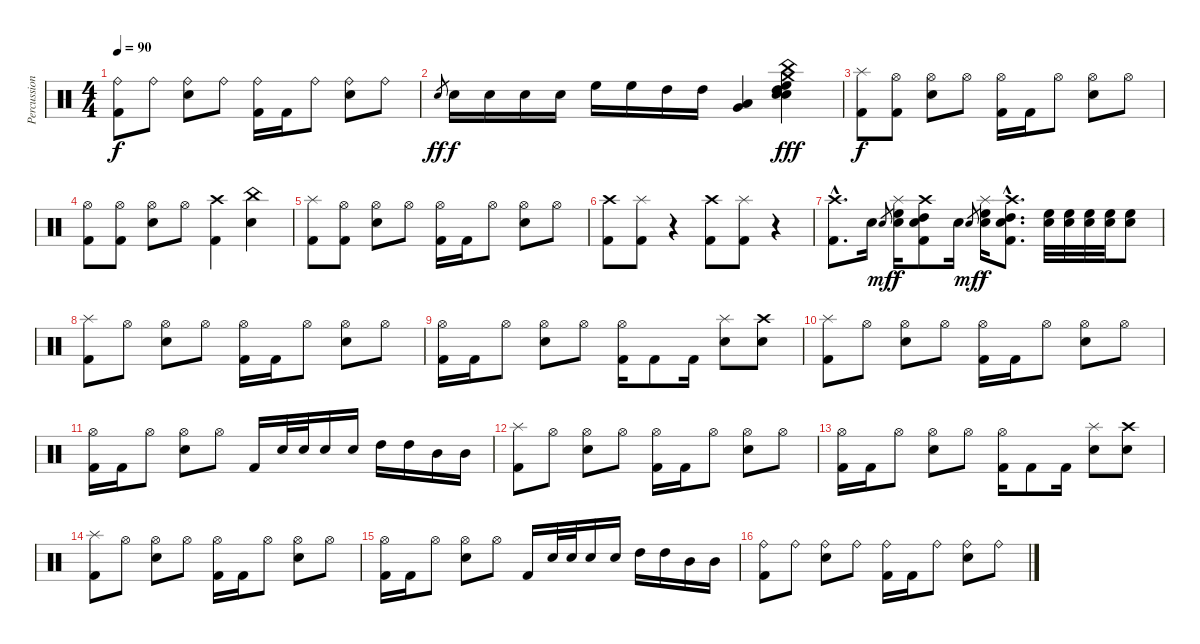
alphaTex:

\track ("Percussions" "Percussion") {instrument percussion}
\staff {score}
\articulation defaults
\ts (4 4)
\tempo 90
\clef neutral
\ks c
("Kick (hit) 2" "Ride (bell)").8{dy f} "Ride (bell)".8 ("Snare (hit) 2" "Ride (bell)").8 "Ride (bell)".8 ("Kick (hit) 2" "Ride (bell)").16 "Kick (hit) 2".16 "Ride (bell)".8 ("Snare (hit) 2" "Ride (bell)").8 "Ride (bell)".8 |
"Snare (hit) 2".8{gr dy ff} "Snare (hit) 2".16{dy f} "Snare (hit) 2".16 "Snare (hit) 2".16 "Snare (hit) 2".16 "High Floor Tom (hit)".16 "High Floor Tom (hit)".16 "High Tom (hit)".16 "High Tom (hit)".16 ("Very Low Tom (hit)" "Low Floor Tom (hit)").4 ("China (hit)" "High Tom (hit)" "High Floor Tom (hit)" "Snare (hit) 2" "Electric Snare (hit)" "Crash medium (hit)").4{dy fff} |
("Kick (hit) 2" "Splash (hit)").8{dy f} ("Kick (hit) 2" "Hi-Hat (open)").8 ("Snare (hit) 2" "Hi-Hat (open)").8 "Hi-Hat (open)".8 ("Kick (hit) 2" "Hi-Hat (open)").16 "Kick (hit) 2".16 "Hi-Hat (open)".8 ("Snare (hit) 2" "Hi-Hat (open)").8 "Hi-Hat (open)".8 |
("Kick (hit) 2" "Hi-Hat (open)").8 ("Kick (hit) 2" "Hi-Hat (open)").8 ("Snare (hit) 2" "Hi-Hat (open)").8 "Hi-Hat (open)".8 ("Kick (hit) 2" "Crash high (hit)").4 ("Snare (hit) 2" "China (hit)").4 |
("Kick (hit) 2" "Splash (hit)").8 ("Kick (hit) 2" "Hi-Hat (open)").8 ("Snare (hit) 2" "Hi-Hat (open)").8 "Hi-Hat (open)".8 ("Kick (hit) 2" "Hi-Hat (open)").16 "Kick (hit) 2".16 "Hi-Hat (open)".8 ("Snare (hit) 2" "Hi-Hat (open)").8 "Hi-Hat (open)".8 |
("Kick (hit) 2" "Crash high (hit)").8 ("Kick (hit) 2" "Splash (hit)").8 r.4 ("Kick (hit) 2" "Crash high (hit)").8 ("Kick (hit) 2" "Splash (hit)").8 r.4 |
("Kick (hit) 2"{hac} "Crash high (hit)"{hac}).8{d} "Snare (hit) 2".16 "Snare (hit) 2".8{gr dy mf} ("Snare (hit) 2" "High Floor Tom (hit)" "Splash (hit)").16{dy f} ("Kick (hit) 2" "Snare (hit) 2" "High Tom (hit)" "Crash high (hit)").8 "Snare (hit) 2".16 "Snare (hit) 2".8{gr dy mf} ("Snare (hit) 2" "High Floor Tom (hit)" "Splash (hit)").16{dy f} ("Kick (hit) 2"{hac} "Snare (hit) 2"{hac} "High Tom (hit)"{hac} "Crash high (hit)"{hac}).8{d} ("Snare (hit) 2" "High Floor Tom (hit)").32 ("Snare (hit) 2" "High Floor Tom (hit)").32 ("Snare (hit) 2" "High Floor Tom (hit)").32 ("Snare (hit) 2" "High Floor Tom (hit)").32 ("Snare (hit) 2" "High Floor Tom (hit)").8 |
("Kick (hit) 2" "Splash (hit)").8 "Hi-Hat (open)".8 ("Snare (hit) 2" "Hi-Hat (open)").8 "Hi-Hat (open)".8 ("Kick (hit) 2" "Hi-Hat (open)").16 "Kick (hit) 2".16 "Hi-Hat (open)".8 ("Snare (hit) 2" "Hi-Hat (open)").8 "Hi-Hat (open)".8 |
("Kick (hit) 2" "Hi-Hat (open)").16 "Kick (hit) 2".16 "Hi-Hat (open)".8 ("Snare (hit) 2" "Hi-Hat (open)").8 "Hi-Hat (open)".8 ("Kick (hit) 2" "Hi-Hat (open)").16 "Kick (hit) 2".8 "Kick (hit) 2".16 ("Snare (hit) 2" "Splash (hit)").8 ("Snare (hit) 2" "Crash high (hit)").8 |
("Kick (hit) 2" "Splash (hit)").8 "Hi-Hat (open)".8 ("Snare (hit) 2" "Hi-Hat (open)").8 "Hi-Hat (open)".8 ("Kick (hit) 2" "Hi-Hat (open)").16 "Kick (hit) 2".16 "Hi-Hat (open)".8 ("Snare (hit) 2" "Hi-Hat (open)").8 "Hi-Hat (open)".8 |
("Kick (hit) 2" "Hi-Hat (open)").16 "Kick (hit) 2".16 "Hi-Hat (open)".8 ("Snare (hit) 2" "Hi-Hat (open)").8 "Hi-Hat (open)".8 "Kick (hit) 2".16 "Snare (hit) 2".32 "Snare (hit) 2".32 "Snare (hit) 2".16 "Snare (hit) 2".16 "High Tom (hit)".16 "High Tom (hit)".16 "Mid Tom (hit)".16 "Mid Tom (hit)".16 |
("Kick (hit) 2" "Splash (hit)").8 "Hi-Hat (open)".8 ("Snare (hit) 2" "Hi-Hat (open)").8 "Hi-Hat (open)".8 ("Kick (hit) 2" "Hi-Hat (open)").16 "Kick (hit) 2".16 "Hi-Hat (open)".8 ("Snare (hit) 2" "Hi-Hat (open)").8 "Hi-Hat (open)".8 |
("Kick (hit) 2" "Hi-Hat (open)").16 "Kick (hit) 2".16 "Hi-Hat (open)".8 ("Snare (hit) 2" "Hi-Hat (open)").8 "Hi-Hat (open)".8 ("Kick (hit) 2" "Hi-Hat (open)").16 "Kick (hit) 2".8 "Kick (hit) 2".16 ("Snare (hit) 2" "Splash (hit)").8 ("Snare (hit) 2" "Crash high (hit)").8 |
("Kick (hit) 2" "Splash (hit)").8 "Hi-Hat (open)".8 ("Snare (hit) 2" "Hi-Hat (open)").8 "Hi-Hat (open)".8 ("Kick (hit) 2" "Hi-Hat (open)").16 "Kick (hit) 2".16 "Hi-Hat (open)".8 ("Snare (hit) 2" "Hi-Hat (open)").8 "Hi-Hat (open)".8 |
("Kick (hit) 2" "Hi-Hat (open)").16 "Kick (hit) 2".16 "Hi-Hat (open)".8 ("Snare (hit) 2" "Hi-Hat (open)").8 "Hi-Hat (open)".8 "Kick (hit) 2".16 "Snare (hit) 2".32 "Snare (hit) 2".32 "Snare (hit) 2".16 "Snare (hit) 2".16 "High Tom (hit)".16 "High Tom (hit)".16 "Mid Tom (hit)".16 "Mid Tom (hit)".16 |
("Kick (hit) 2" "Ride (bell)").8 "Ride (bell)".8 ("Snare (hit) 2" "Ride (bell)").8 "Ride (bell)".8 ("Kick (hit) 2" "Ride (bell)").16 "Kick (hit) 2".16 "Ride (bell)".8 ("Snare (hit) 2" "Ride (bell)").8 "Ride (bell)".8
